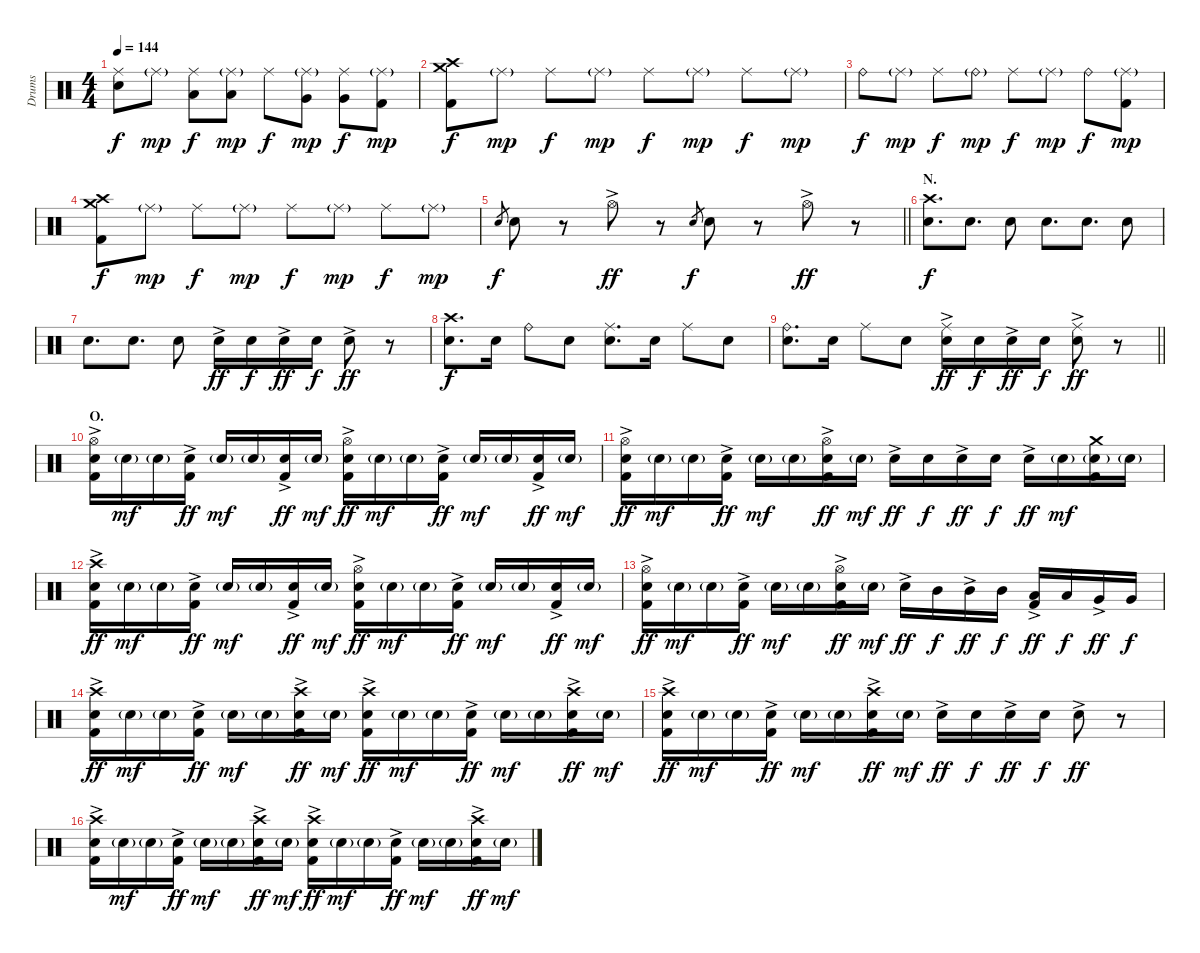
\track ("Drums" "Drums") {instrument percussion}
\staff {score}
\articulation defaults
\ts (4 4)
\tempo 144
\clef neutral
\ks c
("Ride (middle)" "Electric Snare (hit)").8{dy f} "Ride (middle)"{g}.8{dy mp} ("Ride (middle)" "Low Tom (hit)").8{dy f} ("Ride (middle)"{g} "Low Tom (hit)").8{dy mp} "Ride (middle)".8{dy f} ("Ride (middle)"{g} "Very Low Tom (hit)").8{dy mp} ("Ride (middle)" "Very Low Tom (hit)").8{dy f} ("Ride (middle)"{g} "Kick (hit) 2").8{dy mp} |
("Crash medium (hit)" "Crash high (hit)" "Kick (hit) 2").8{dy f} "Ride (middle)"{g}.8{dy mp} "Ride (middle)".8{dy f} "Ride (middle)"{g}.8{dy mp} "Ride (middle)".8{dy f} "Ride (middle)"{g}.8{dy mp} "Ride (middle)".8{dy f} "Ride (middle)"{g}.8{dy mp} |
"Ride (bell)".8{dy f} "Ride (middle)"{g}.8{dy mp} "Ride (middle)".8{dy f} "Ride (bell)"{g}.8{dy mp} "Ride (middle)".8{dy f} "Ride (middle)"{g}.8{dy mp} "Ride (bell)".8{dy f} ("Ride (middle)"{g} "Kick (hit) 2").8{dy mp} |
("Crash medium (hit)" "Crash high (hit)" "Kick (hit) 2").8{dy f} "Ride (middle)"{g}.8{dy mp} "Ride (middle)".8{dy f} "Ride (middle)"{g}.8{dy mp} "Ride (middle)".8{dy f} "Ride (middle)"{g}.8{dy mp} "Ride (middle)".8{dy f} "Ride (middle)"{g}.8{dy mp} |
\barLineRight lightlight "Electric Snare (hit)".8{gr dy f} "Electric Snare (hit)".8
r.8 "Hi-Hat (open)"{ac}.8{dy ff} r.8 "Electric Snare (hit)".8{gr dy f} "Electric Snare (hit)".8 r.8 "Hi-Hat (open)"{ac}.8{dy ff} r.8 |
\section ("" "N.")
("Crash high (hit)" "Electric Snare (hit)").8{d dy f} "Electric Snare (hit)".8{d} "Electric Snare (hit)".8 "Electric Snare (hit)".8{d} "Electric Snare (hit)".8{d} "Electric Snare (hit)".8 |
"Electric Snare (hit)".8{d} "Electric Snare (hit)".8{d} "Electric Snare (hit)".8 "Electric Snare (hit)"{ac}.16{dy ff} "Electric Snare (hit)".16{dy f} "Electric Snare (hit)"{ac}.16{dy ff} "Electric Snare (hit)".16{dy f} "Electric Snare (hit)"{ac}.8{dy ff} r.8 |
("Crash high (hit)" "Electric Snare (hit)").8{d dy f} "Electric Snare (hit)".16 "Ride (bell)".8 "Electric Snare (hit)".8 ("Ride (middle)" "Electric Snare (hit)").8{d} "Electric Snare (hit)".16 "Ride (middle)".8 "Electric Snare (hit)".8 |
\barLineRight lightlight
("Ride (bell)" "Electric Snare (hit)").8{d} "Electric Snare (hit)".16 "Ride (middle)".8 "Electric Snare (hit)".8 ("Ride (middle)" "Electric Snare (hit)"{ac}).16{dy ff} "Electric Snare (hit)".16{dy f} "Electric Snare (hit)"{ac}.16{dy ff} "Electric Snare (hit)".16{dy f} ("Ride (middle)" "Electric Snare (hit)"{ac}).8{dy ff} r.8 |
\section ("" "O.")
("Hi-Hat (open)" "Electric Snare (hit)"{ac} "Kick (hit) 2").16 "Electric Snare (hit)"{g}.16{dy mf} "Electric Snare (hit)"{g}.16 ("Electric Snare (hit)"{ac} "Kick (hit) 2").16{dy ff} "Electric Snare (hit)"{g}.16{dy mf} "Electric Snare (hit)"{g}.16 ("Electric Snare (hit)"{ac} "Kick (hit) 2").16{dy ff} "Electric Snare (hit)"{g}.16{dy mf} ("Hi-Hat (open)" "Electric Snare (hit)"{ac} "Kick (hit) 2").16{dy ff} "Electric Snare (hit)"{g}.16{dy mf} "Electric Snare (hit)"{g}.16 ("Electric Snare (hit)"{ac} "Kick (hit) 2").16{dy ff} "Electric Snare (hit)"{g}.16{dy mf} "Electric Snare (hit)"{g}.16 ("Electric Snare (hit)"{ac} "Kick (hit) 2").16{dy ff} "Electric Snare (hit)"{g}.16{dy mf} |
("Hi-Hat (open)" "Electric Snare (hit)"{ac} "Kick (hit) 2").16{dy ff} "Electric Snare (hit)"{g}.16{dy mf} "Electric Snare (hit)"{g}.16 ("Electric Snare (hit)"{ac} "Kick (hit) 2").16{dy ff} "Electric Snare (hit)"{g}.16{dy mf} "Electric Snare (hit)"{g}.16 ("Hi-Hat (open)" "Electric Snare (hit)"{ac} "Kick (hit) 2").16{dy ff} "Electric Snare (hit)"{g}.16{dy mf} "Electric Snare (hit)"{ac}.16{dy ff} "Electric Snare (hit)".16{dy f} "Electric Snare (hit)"{ac}.16{dy ff} "Electric Snare (hit)".16{dy f} "Electric Snare (hit)"{ac}.16{dy ff} "Electric Snare (hit)"{g}.16{dy mf} ("Crash medium (hit)" "Electric Snare (hit)"{g} "Kick (hit) 2").16 "Electric Snare (hit)"{g}.16 |
("Crash high (hit)" "Electric Snare (hit)"{ac} "Kick (hit) 2").16{dy ff} "Electric Snare (hit)"{g}.16{dy mf} "Electric Snare (hit)"{g}.16 ("Electric Snare (hit)"{ac} "Kick (hit) 2").16{dy ff} "Electric Snare (hit)"{g}.16{dy mf} "Electric Snare (hit)"{g}.16 ("Electric Snare (hit)"{ac} "Kick (hit) 2").16{dy ff} "Electric Snare (hit)"{g}.16{dy mf} ("Hi-Hat (open)" "Electric Snare (hit)"{ac} "Kick (hit) 2").16{dy ff} "Electric Snare (hit)"{g}.16{dy mf} "Electric Snare (hit)"{g}.16 ("Electric Snare (hit)"{ac} "Kick (hit) 2").16{dy ff} "Electric Snare (hit)"{g}.16{dy mf} "Electric Snare (hit)"{g}.16 ("Electric Snare (hit)"{ac} "Kick (hit) 2").16{dy ff} "Electric Snare (hit)"{g}.16{dy mf} |
("Hi-Hat (open)" "Electric Snare (hit)"{ac} "Kick (hit) 2").16{dy ff} "Electric Snare (hit)"{g}.16{dy mf} "Electric Snare (hit)"{g}.16 ("Electric Snare (hit)"{ac} "Kick (hit) 2").16{dy ff} "Electric Snare (hit)"{g}.16{dy mf} "Electric Snare (hit)"{g}.16 ("Hi-Hat (open)" "Electric Snare (hit)"{ac} "Kick (hit) 2").16{dy ff} "Electric Snare (hit)"{g}.16{dy mf} "Electric Snare (hit)"{ac}.16{dy ff} "Mid Tom (hit)".16{dy f} "Mid Tom (hit)"{ac}.16{dy ff} "Mid Tom (hit)".16{dy f} ("Low Tom (hit)"{ac} "Kick (hit) 2").16{dy ff} "Low Tom (hit)".16{dy f} "Very Low Tom (hit)"{ac}.16{dy ff} "Very Low Tom (hit)".16{dy f} |
("Crash high (hit)" "Electric Snare (hit)"{ac} "Kick (hit) 2").16{dy ff} "Electric Snare (hit)"{g}.16{dy mf} "Electric Snare (hit)"{g}.16 ("Electric Snare (hit)"{ac} "Kick (hit) 2").16{dy ff} "Electric Snare (hit)"{g}.16{dy mf} "Electric Snare (hit)"{g}.16 ("Crash high (hit)" "Electric Snare (hit)"{ac} "Kick (hit) 2").16{dy ff} "Electric Snare (hit)"{g}.16{dy mf} ("Crash high (hit)" "Electric Snare (hit)"{ac} "Kick (hit) 2").16{dy ff} "Electric Snare (hit)"{g}.16{dy mf} "Electric Snare (hit)"{g}.16 ("Electric Snare (hit)"{ac} "Kick (hit) 2").16{dy ff} "Electric Snare (hit)"{g}.16{dy mf} "Electric Snare (hit)"{g}.16 ("Crash high (hit)" "Electric Snare (hit)"{ac} "Kick (hit) 2").16{dy ff} "Electric Snare (hit)"{g}.16{dy mf} |
("Crash high (hit)" "Electric Snare (hit)"{ac} "Kick (hit) 2").16{dy ff} "Electric Snare (hit)"{g}.16{dy mf} "Electric Snare (hit)"{g}.16 ("Electric Snare (hit)"{ac} "Kick (hit) 2").16{dy ff} "Electric Snare (hit)"{g}.16{dy mf} "Electric Snare (hit)"{g}.16 ("Crash high (hit)" "Electric Snare (hit)"{ac} "Kick (hit) 2").16{dy ff} "Electric Snare (hit)"{g}.16{dy mf} "Electric Snare (hit)"{ac}.16{dy ff} "Electric Snare (hit)".16{dy f} "Electric Snare (hit)"{ac}.16{dy ff} "Electric Snare (hit)".16{dy f} "Electric Snare (hit)"{ac}.8{dy ff} r.8 |
("Crash high (hit)" "Electric Snare (hit)"{ac} "Kick (hit) 2").16 "Electric Snare (hit)"{g}.16{dy mf} "Electric Snare (hit)"{g}.16 ("Electric Snare (hit)"{ac} "Kick (hit) 2").16{dy ff} "Electric Snare (hit)"{g}.16{dy mf} "Electric Snare (hit)"{g}.16 ("Crash high (hit)" "Electric Snare (hit)"{ac} "Kick (hit) 2").16{dy ff} "Electric Snare (hit)"{g}.16{dy mf} ("Crash high (hit)" "Electric Snare (hit)"{ac} "Kick (hit) 2").16{dy ff} "Electric Snare (hit)"{g}.16{dy mf} "Electric Snare (hit)"{g}.16 ("Electric Snare (hit)"{ac} "Kick (hit) 2").16{dy ff} "Electric Snare (hit)"{g}.16{dy mf} "Electric Snare (hit)"{g}.16 ("Crash high (hit)" "Electric Snare (hit)"{ac} "Kick (hit) 2").16{dy ff} "Electric Snare (hit)"{g}.16{dy mf}
